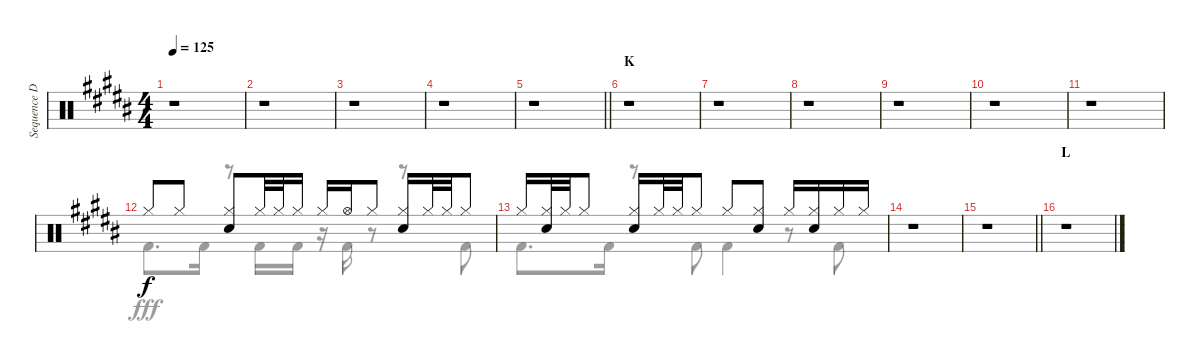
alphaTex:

\track ("Sequence Drums" "Sequence D") {instrument percussion}
\staff {score}
\articulation defaults
\voice
\ts (4 4)
\tempo 125
\clef neutral
\ks b
r.1{dy f} |
r.1 |
r.1 |
r.1 |
\barLineRight lightlight
r.1 |
\section ("" "K")
r.1 |
r.1 |
r.1 |
r.1 |
r.1 |
r.1 |
"Hi-Hat (closed)".8 "Hi-Hat (closed)".8 ("Hi-Hat (closed)" "Snare (hit) 2").8 "Hi-Hat (closed)".32 "Hi-Hat (closed)".32 "Hi-Hat (closed)".16 "Hi-Hat (closed)".16 "Hi-Hat (open)".16 "Hi-Hat (closed)".8 ("Hi-Hat (closed)" "Snare (hit) 2").16 "Hi-Hat (closed)".32 "Hi-Hat (closed)".32 "Hi-Hat (closed)".8 |
"Hi-Hat (closed)".16 ("Hi-Hat (closed)" "Snare (hit) 2").32 "Hi-Hat (closed)".32 "Hi-Hat (closed)".8 ("Hi-Hat (closed)" "Snare (hit) 2").16 "Hi-Hat (closed)".32 "Hi-Hat (closed)".32 "Hi-Hat (closed)".8 "Hi-Hat (closed)".8 ("Hi-Hat (closed)" "Snare (hit) 2").8 "Hi-Hat (closed)".16 ("Hi-Hat (closed)" "Snare (hit) 2").16 "Hi-Hat (closed)".16 "Hi-Hat (closed)".16 |
r.1 |
\barLineRight lightlight
r.1 |
\section ("" "L")
r.1
\voice
\clef neutral
\ottava regular
\simile none
\ks b
r.1{dy fff} |
r.1 |
r.1 |
r.1 |
\barLineRight lightlight
r.1 |
r.1 |
r.1 |
r.1 |
r.1 |
r.1 |
r.1 |
"Kick (hit) 2".8{d} "Kick (hit) 2".16 r.8 "Kick (hit) 2".16 "Kick (hit) 2".16 r.16 "Kick (hit) 2".16 r.8 r.8 "Kick (hit) 2".8 |
"Kick (hit) 2".8{d} "Kick (hit) 2".16 r.8 "Kick (hit) 2".8 "Kick (hit) 2".4 r.8 "Kick (hit) 2".8 |
r.1 |
\barLineRight lightlight
r.1 |
r.1
